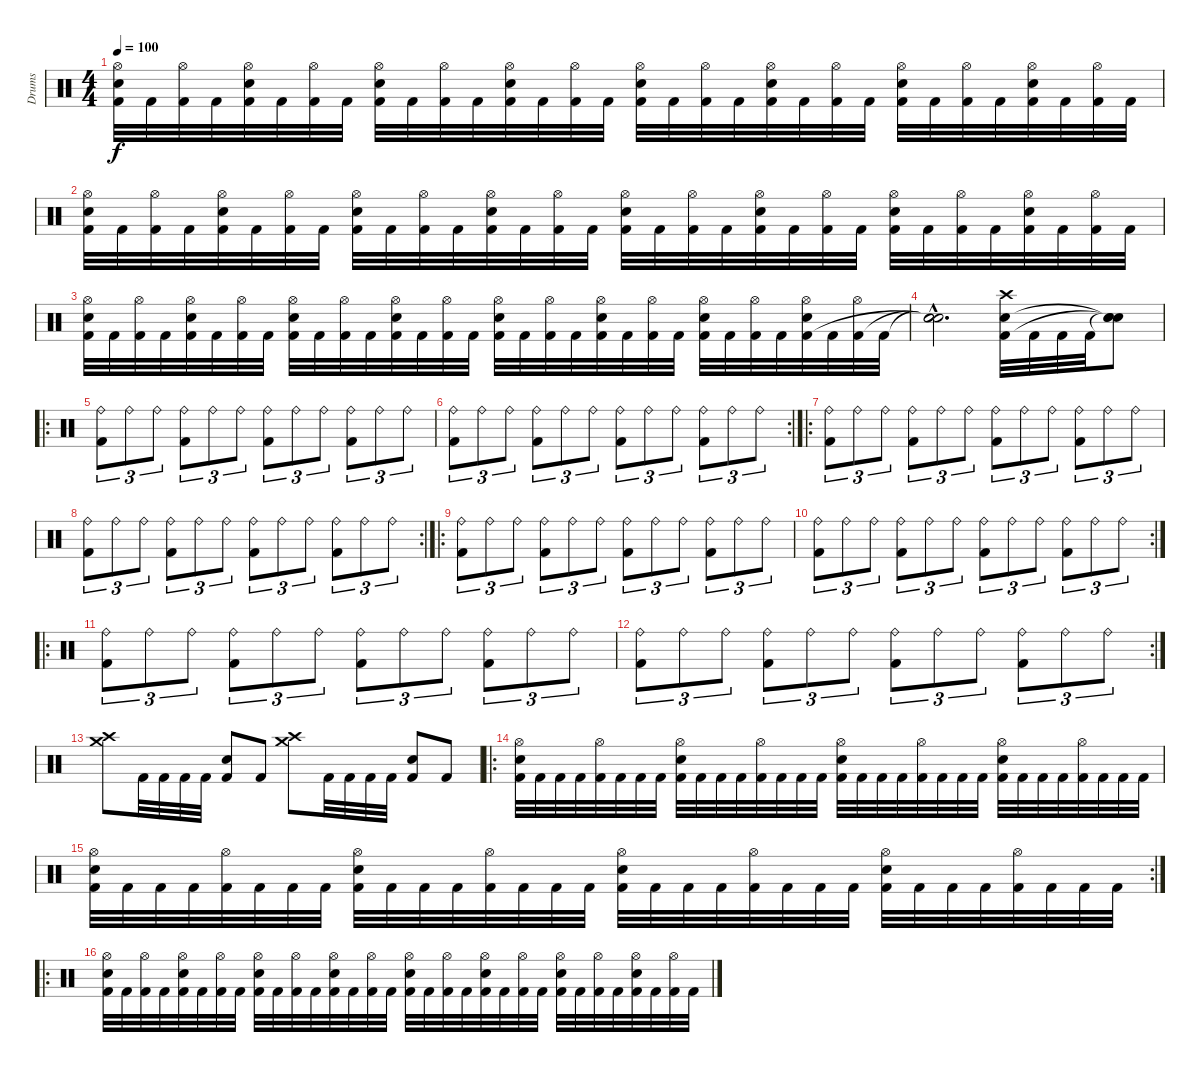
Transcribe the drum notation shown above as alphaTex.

\track ("Drums" "Drums") {instrument percussion}
\staff {score}
\articulation defaults
\ts (4 4)
\tempo 100
\clef neutral
\ks c
("Hi-Hat (open)" "Electric Snare (hit)" "Kick (hit) 2").32{dy f} "Kick (hit) 2".32 ("Hi-Hat (open)" "Kick (hit) 2").32 "Kick (hit) 2".32 ("Hi-Hat (open)" "Electric Snare (hit)" "Kick (hit) 2").32 "Kick (hit) 2".32 ("Hi-Hat (open)" "Kick (hit) 2").32 "Kick (hit) 2".32 ("Hi-Hat (open)" "Electric Snare (hit)" "Kick (hit) 2").32 "Kick (hit) 2".32 ("Hi-Hat (open)" "Kick (hit) 2").32 "Kick (hit) 2".32 ("Hi-Hat (open)" "Electric Snare (hit)" "Kick (hit) 2").32 "Kick (hit) 2".32 ("Hi-Hat (open)" "Kick (hit) 2").32 "Kick (hit) 2".32 ("Hi-Hat (open)" "Electric Snare (hit)" "Kick (hit) 2").32 "Kick (hit) 2".32 ("Hi-Hat (open)" "Kick (hit) 2").32 "Kick (hit) 2".32 ("Hi-Hat (open)" "Electric Snare (hit)" "Kick (hit) 2").32 "Kick (hit) 2".32 ("Hi-Hat (open)" "Kick (hit) 2").32 "Kick (hit) 2".32 ("Hi-Hat (open)" "Electric Snare (hit)" "Kick (hit) 2").32 "Kick (hit) 2".32 ("Hi-Hat (open)" "Kick (hit) 2").32 "Kick (hit) 2".32 ("Hi-Hat (open)" "Electric Snare (hit)" "Kick (hit) 2").32 "Kick (hit) 2".32 ("Hi-Hat (open)" "Kick (hit) 2").32 "Kick (hit) 2".32 |
("Hi-Hat (open)" "Electric Snare (hit)" "Kick (hit) 2").32 "Kick (hit) 2".32 ("Hi-Hat (open)" "Kick (hit) 2").32 "Kick (hit) 2".32 ("Hi-Hat (open)" "Electric Snare (hit)" "Kick (hit) 2").32 "Kick (hit) 2".32 ("Hi-Hat (open)" "Kick (hit) 2").32 "Kick (hit) 2".32 ("Hi-Hat (open)" "Electric Snare (hit)" "Kick (hit) 2").32 "Kick (hit) 2".32 ("Hi-Hat (open)" "Kick (hit) 2").32 "Kick (hit) 2".32 ("Hi-Hat (open)" "Electric Snare (hit)" "Kick (hit) 2").32 "Kick (hit) 2".32 ("Hi-Hat (open)" "Kick (hit) 2").32 "Kick (hit) 2".32 ("Hi-Hat (open)" "Electric Snare (hit)" "Kick (hit) 2").32 "Kick (hit) 2".32 ("Hi-Hat (open)" "Kick (hit) 2").32 "Kick (hit) 2".32 ("Hi-Hat (open)" "Electric Snare (hit)" "Kick (hit) 2").32 "Kick (hit) 2".32 ("Hi-Hat (open)" "Kick (hit) 2").32 "Kick (hit) 2".32 ("Hi-Hat (open)" "Electric Snare (hit)" "Kick (hit) 2").32 "Kick (hit) 2".32 ("Hi-Hat (open)" "Kick (hit) 2").32 "Kick (hit) 2".32 ("Hi-Hat (open)" "Electric Snare (hit)" "Kick (hit) 2").32 "Kick (hit) 2".32 ("Hi-Hat (open)" "Kick (hit) 2").32 "Kick (hit) 2".32 |
("Hi-Hat (open)" "Electric Snare (hit)" "Kick (hit) 2").32 "Kick (hit) 2".32 ("Hi-Hat (open)" "Kick (hit) 2").32 "Kick (hit) 2".32 ("Hi-Hat (open)" "Electric Snare (hit)" "Kick (hit) 2").32 "Kick (hit) 2".32 ("Hi-Hat (open)" "Kick (hit) 2").32 "Kick (hit) 2".32 ("Hi-Hat (open)" "Electric Snare (hit)" "Kick (hit) 2").32 "Kick (hit) 2".32 ("Hi-Hat (open)" "Kick (hit) 2").32 "Kick (hit) 2".32 ("Hi-Hat (open)" "Electric Snare (hit)" "Kick (hit) 2").32 "Kick (hit) 2".32 ("Hi-Hat (open)" "Kick (hit) 2").32 "Kick (hit) 2".32 ("Hi-Hat (open)" "Electric Snare (hit)" "Kick (hit) 2").32 "Kick (hit) 2".32 ("Hi-Hat (open)" "Kick (hit) 2").32 "Kick (hit) 2".32 ("Hi-Hat (open)" "Electric Snare (hit)" "Kick (hit) 2").32 "Kick (hit) 2".32 ("Hi-Hat (open)" "Kick (hit) 2").32 "Kick (hit) 2".32 ("Hi-Hat (open)" "Electric Snare (hit)" "Kick (hit) 2").32 "Kick (hit) 2".32 ("Hi-Hat (open)" "Kick (hit) 2").32 "Kick (hit) 2".32 ("Hi-Hat (open)" "Electric Snare (hit)" "Kick (hit) 2").32 "Kick (hit) 2".32 ("Hi-Hat (open)" "Kick (hit) 2").32 "Kick (hit) 2".32 |
("Snare (hit)"{hac t} "Snare (hit)"{hac t} "Snare (hit)"{hac t}).2{d} ("Crash high (hit)" "Electric Snare (hit)" "Kick (hit) 2").32 "Kick (hit) 2".32 "Kick (hit) 2".32 "Kick (hit) 2".32 ("Snare (hit)"{t} "Snare (hit)"{t} "Snare (hit)"{t}).8 |
\ro
("Ride (bell)" "Kick (hit) 2").8{tu (3 2)} "Ride (bell)".8{tu (3 2)} "Ride (bell)".8{tu (3 2)} ("Ride (bell)" "Kick (hit) 2").8{tu (3 2)} "Ride (bell)".8{tu (3 2)} "Ride (bell)".8{tu (3 2)} ("Ride (bell)" "Kick (hit) 2").8{tu (3 2)} "Ride (bell)".8{tu (3 2)} "Ride (bell)".8{tu (3 2)} ("Ride (bell)" "Kick (hit) 2").8{tu (3 2)} "Ride (bell)".8{tu (3 2)} "Ride (bell)".8{tu (3 2)} |
\rc 2
("Ride (bell)" "Kick (hit) 2").8{tu (3 2)} "Ride (bell)".8{tu (3 2)} "Ride (bell)".8{tu (3 2)} ("Ride (bell)" "Kick (hit) 2").8{tu (3 2)} "Ride (bell)".8{tu (3 2)} "Ride (bell)".8{tu (3 2)} ("Ride (bell)" "Kick (hit) 2").8{tu (3 2)} "Ride (bell)".8{tu (3 2)} "Ride (bell)".8{tu (3 2)} ("Ride (bell)" "Kick (hit) 2").8{tu (3 2)} "Ride (bell)".8{tu (3 2)} "Ride (bell)".8{tu (3 2)} |
\ro
("Ride (bell)" "Kick (hit) 2").8{tu (3 2)} "Ride (bell)".8{tu (3 2)} "Ride (bell)".8{tu (3 2)} ("Ride (bell)" "Kick (hit) 2").8{tu (3 2)} "Ride (bell)".8{tu (3 2)} "Ride (bell)".8{tu (3 2)} ("Ride (bell)" "Kick (hit) 2").8{tu (3 2)} "Ride (bell)".8{tu (3 2)} "Ride (bell)".8{tu (3 2)} ("Ride (bell)" "Kick (hit) 2").8{tu (3 2)} "Ride (bell)".8{tu (3 2)} "Ride (bell)".8{tu (3 2)} |
\rc 2
("Ride (bell)" "Kick (hit) 2").8{tu (3 2)} "Ride (bell)".8{tu (3 2)} "Ride (bell)".8{tu (3 2)} ("Ride (bell)" "Kick (hit) 2").8{tu (3 2)} "Ride (bell)".8{tu (3 2)} "Ride (bell)".8{tu (3 2)} ("Ride (bell)" "Kick (hit) 2").8{tu (3 2)} "Ride (bell)".8{tu (3 2)} "Ride (bell)".8{tu (3 2)} ("Ride (bell)" "Kick (hit) 2").8{tu (3 2)} "Ride (bell)".8{tu (3 2)} "Ride (bell)".8{tu (3 2)} |
\ro
("Ride (bell)" "Kick (hit) 2").8{tu (3 2)} "Ride (bell)".8{tu (3 2)} "Ride (bell)".8{tu (3 2)} ("Ride (bell)" "Kick (hit) 2").8{tu (3 2)} "Ride (bell)".8{tu (3 2)} "Ride (bell)".8{tu (3 2)} ("Ride (bell)" "Kick (hit) 2").8{tu (3 2)} "Ride (bell)".8{tu (3 2)} "Ride (bell)".8{tu (3 2)} ("Ride (bell)" "Kick (hit) 2").8{tu (3 2)} "Ride (bell)".8{tu (3 2)} "Ride (bell)".8{tu (3 2)} |
\rc 2
("Ride (bell)" "Kick (hit) 2").8{tu (3 2)} "Ride (bell)".8{tu (3 2)} "Ride (bell)".8{tu (3 2)} ("Ride (bell)" "Kick (hit) 2").8{tu (3 2)} "Ride (bell)".8{tu (3 2)} "Ride (bell)".8{tu (3 2)} ("Ride (bell)" "Kick (hit) 2").8{tu (3 2)} "Ride (bell)".8{tu (3 2)} "Ride (bell)".8{tu (3 2)} ("Ride (bell)" "Kick (hit) 2").8{tu (3 2)} "Ride (bell)".8{tu (3 2)} "Ride (bell)".8{tu (3 2)} |
\ro
("Ride (bell)" "Kick (hit) 2").8{tu (3 2)} "Ride (bell)".8{tu (3 2)} "Ride (bell)".8{tu (3 2)} ("Ride (bell)" "Kick (hit) 2").8{tu (3 2)} "Ride (bell)".8{tu (3 2)} "Ride (bell)".8{tu (3 2)} ("Ride (bell)" "Kick (hit) 2").8{tu (3 2)} "Ride (bell)".8{tu (3 2)} "Ride (bell)".8{tu (3 2)} ("Ride (bell)" "Kick (hit) 2").8{tu (3 2)} "Ride (bell)".8{tu (3 2)} "Ride (bell)".8{tu (3 2)} |
\rc 2
("Ride (bell)" "Kick (hit) 2").8{tu (3 2)} "Ride (bell)".8{tu (3 2)} "Ride (bell)".8{tu (3 2)} ("Ride (bell)" "Kick (hit) 2").8{tu (3 2)} "Ride (bell)".8{tu (3 2)} "Ride (bell)".8{tu (3 2)} ("Ride (bell)" "Kick (hit) 2").8{tu (3 2)} "Ride (bell)".8{tu (3 2)} "Ride (bell)".8{tu (3 2)} ("Ride (bell)" "Kick (hit) 2").8{tu (3 2)} "Ride (bell)".8{tu (3 2)} "Ride (bell)".8{tu (3 2)} |
("Crash high (hit)" "Crash medium (hit)").8 "Kick (hit) 2".32 "Kick (hit) 2".32 "Kick (hit) 2".32 "Kick (hit) 2".32 ("Electric Snare (hit)" "Kick (hit) 2").8 "Kick (hit) 2".8 ("Crash high (hit)" "Crash medium (hit)").8 "Kick (hit) 2".32 "Kick (hit) 2".32 "Kick (hit) 2".32 "Kick (hit) 2".32 ("Electric Snare (hit)" "Kick (hit) 2").8 "Kick (hit) 2".8 |
\ro
("Hi-Hat (open)" "Electric Snare (hit)" "Kick (hit) 2").32 "Kick (hit) 2".32 "Kick (hit) 2".32 "Kick (hit) 2".32 ("Hi-Hat (open)" "Kick (hit) 2").32 "Kick (hit) 2".32 "Kick (hit) 2".32 "Kick (hit) 2".32 ("Hi-Hat (open)" "Electric Snare (hit)" "Kick (hit) 2").32 "Kick (hit) 2".32 "Kick (hit) 2".32 "Kick (hit) 2".32 ("Hi-Hat (open)" "Kick (hit) 2").32 "Kick (hit) 2".32 "Kick (hit) 2".32 "Kick (hit) 2".32 ("Hi-Hat (open)" "Electric Snare (hit)" "Kick (hit) 2").32 "Kick (hit) 2".32 "Kick (hit) 2".32 "Kick (hit) 2".32 ("Hi-Hat (open)" "Kick (hit) 2").32 "Kick (hit) 2".32 "Kick (hit) 2".32 "Kick (hit) 2".32 ("Hi-Hat (open)" "Electric Snare (hit)" "Kick (hit) 2").32 "Kick (hit) 2".32 "Kick (hit) 2".32 "Kick (hit) 2".32 ("Hi-Hat (open)" "Kick (hit) 2").32 "Kick (hit) 2".32 "Kick (hit) 2".32 "Kick (hit) 2".32 |
\rc 2
("Hi-Hat (open)" "Electric Snare (hit)" "Kick (hit) 2").32 "Kick (hit) 2".32 "Kick (hit) 2".32 "Kick (hit) 2".32 ("Hi-Hat (open)" "Kick (hit) 2").32 "Kick (hit) 2".32 "Kick (hit) 2".32 "Kick (hit) 2".32 ("Hi-Hat (open)" "Electric Snare (hit)" "Kick (hit) 2").32 "Kick (hit) 2".32 "Kick (hit) 2".32 "Kick (hit) 2".32 ("Hi-Hat (open)" "Kick (hit) 2").32 "Kick (hit) 2".32 "Kick (hit) 2".32 "Kick (hit) 2".32 ("Hi-Hat (open)" "Electric Snare (hit)" "Kick (hit) 2").32 "Kick (hit) 2".32 "Kick (hit) 2".32 "Kick (hit) 2".32 ("Hi-Hat (open)" "Kick (hit) 2").32 "Kick (hit) 2".32 "Kick (hit) 2".32 "Kick (hit) 2".32 ("Hi-Hat (open)" "Electric Snare (hit)" "Kick (hit) 2").32 "Kick (hit) 2".32 "Kick (hit) 2".32 "Kick (hit) 2".32 ("Hi-Hat (open)" "Kick (hit) 2").32 "Kick (hit) 2".32 "Kick (hit) 2".32 "Kick (hit) 2".32 |
\ro
("Hi-Hat (open)" "Electric Snare (hit)" "Kick (hit) 2").32 "Kick (hit) 2".32 ("Hi-Hat (open)" "Kick (hit) 2").32 "Kick (hit) 2".32 ("Hi-Hat (open)" "Electric Snare (hit)" "Kick (hit) 2").32 "Kick (hit) 2".32 ("Hi-Hat (open)" "Kick (hit) 2").32 "Kick (hit) 2".32 ("Hi-Hat (open)" "Electric Snare (hit)" "Kick (hit) 2").32 "Kick (hit) 2".32 ("Hi-Hat (open)" "Kick (hit) 2").32 "Kick (hit) 2".32 ("Hi-Hat (open)" "Electric Snare (hit)" "Kick (hit) 2").32 "Kick (hit) 2".32 ("Hi-Hat (open)" "Kick (hit) 2").32 "Kick (hit) 2".32 ("Hi-Hat (open)" "Electric Snare (hit)" "Kick (hit) 2").32 "Kick (hit) 2".32 ("Hi-Hat (open)" "Kick (hit) 2").32 "Kick (hit) 2".32 ("Hi-Hat (open)" "Electric Snare (hit)" "Kick (hit) 2").32 "Kick (hit) 2".32 ("Hi-Hat (open)" "Kick (hit) 2").32 "Kick (hit) 2".32 ("Hi-Hat (open)" "Electric Snare (hit)" "Kick (hit) 2").32 "Kick (hit) 2".32 ("Hi-Hat (open)" "Kick (hit) 2").32 "Kick (hit) 2".32 ("Hi-Hat (open)" "Electric Snare (hit)" "Kick (hit) 2").32 "Kick (hit) 2".32 ("Hi-Hat (open)" "Kick (hit) 2").32 "Kick (hit) 2".32
